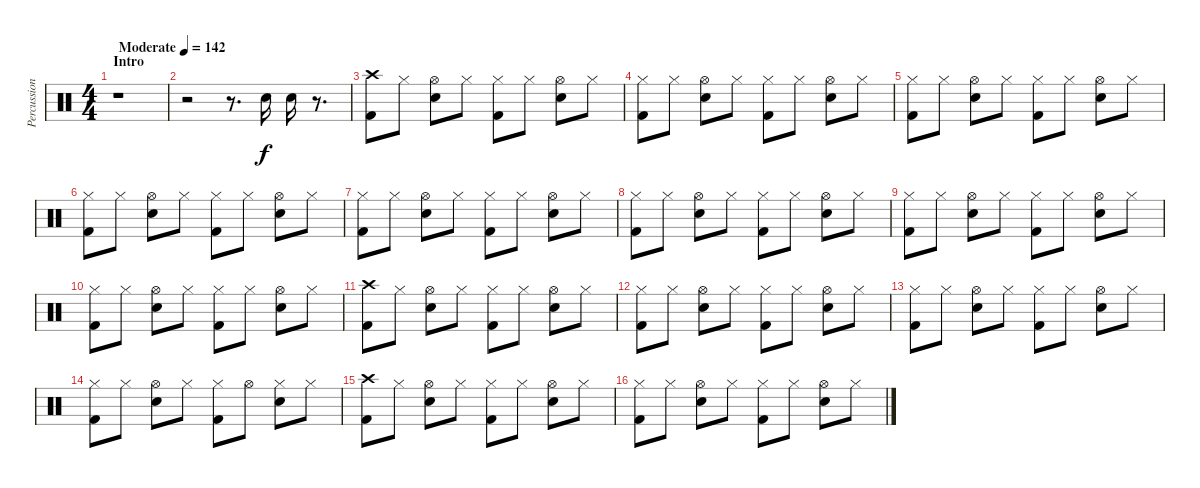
\track ("Percussion" "Percussion") {instrument percussion}
\staff {score}
\articulation defaults
\ts (4 4)
\section ("" "Intro")
\tempo (142 "Moderate")
\clef neutral
\ks c
r.1{dy f} |
r.2 r.8{d} "Snare (hit) 2".16 "Snare (hit) 2".16 r.8{d} |
("Kick (hit) 2" "Crash high (hit)").8 "Hi-Hat (closed)".8 ("Snare (hit) 2" "Hi-Hat (open)").8 "Hi-Hat (closed)".8 ("Kick (hit) 2" "Hi-Hat (closed)").8 "Hi-Hat (closed)".8 ("Snare (hit) 2" "Hi-Hat (open)").8 "Hi-Hat (closed)".8 |
("Kick (hit) 2" "Hi-Hat (closed)").8 "Hi-Hat (closed)".8 ("Snare (hit) 2" "Hi-Hat (open)").8 "Hi-Hat (closed)".8 ("Kick (hit) 2" "Hi-Hat (closed)").8 "Hi-Hat (closed)".8 ("Snare (hit) 2" "Hi-Hat (open)").8 "Hi-Hat (closed)".8 |
("Kick (hit) 2" "Hi-Hat (closed)").8 "Hi-Hat (closed)".8 ("Snare (hit) 2" "Hi-Hat (open)").8 "Hi-Hat (closed)".8 ("Kick (hit) 2" "Hi-Hat (closed)").8 "Hi-Hat (closed)".8 ("Snare (hit) 2" "Hi-Hat (open)").8 "Hi-Hat (closed)".8 |
("Kick (hit) 2" "Hi-Hat (closed)").8 "Hi-Hat (closed)".8 ("Snare (hit) 2" "Hi-Hat (open)").8 "Hi-Hat (closed)".8 ("Kick (hit) 2" "Hi-Hat (closed)").8 "Hi-Hat (closed)".8 ("Snare (hit) 2" "Hi-Hat (open)").8 "Hi-Hat (closed)".8 |
("Kick (hit) 2" "Hi-Hat (closed)").8 "Hi-Hat (closed)".8 ("Snare (hit) 2" "Hi-Hat (open)").8 "Hi-Hat (closed)".8 ("Kick (hit) 2" "Hi-Hat (closed)").8 "Hi-Hat (closed)".8 ("Snare (hit) 2" "Hi-Hat (open)").8 "Hi-Hat (closed)".8 |
("Kick (hit) 2" "Hi-Hat (closed)").8 "Hi-Hat (closed)".8 ("Snare (hit) 2" "Hi-Hat (open)").8 "Hi-Hat (closed)".8 ("Kick (hit) 2" "Hi-Hat (closed)").8 "Hi-Hat (closed)".8 ("Snare (hit) 2" "Hi-Hat (open)").8 "Hi-Hat (closed)".8 |
("Kick (hit) 2" "Hi-Hat (closed)").8 "Hi-Hat (closed)".8 ("Snare (hit) 2" "Hi-Hat (open)").8 "Hi-Hat (closed)".8 ("Kick (hit) 2" "Hi-Hat (closed)").8 "Hi-Hat (closed)".8 ("Snare (hit) 2" "Hi-Hat (open)").8 "Hi-Hat (closed)".8 |
("Kick (hit) 2" "Hi-Hat (closed)").8 "Hi-Hat (closed)".8 ("Snare (hit) 2" "Hi-Hat (open)").8 "Hi-Hat (closed)".8 ("Kick (hit) 2" "Hi-Hat (closed)").8 "Hi-Hat (closed)".8 ("Snare (hit) 2" "Hi-Hat (open)").8 "Hi-Hat (closed)".8 |
("Kick (hit) 2" "Crash high (hit)").8 "Hi-Hat (closed)".8 ("Snare (hit) 2" "Hi-Hat (open)").8 "Hi-Hat (closed)".8 ("Kick (hit) 2" "Hi-Hat (closed)").8 "Hi-Hat (closed)".8 ("Snare (hit) 2" "Hi-Hat (open)").8 "Hi-Hat (closed)".8 |
("Kick (hit) 2" "Hi-Hat (closed)").8 "Hi-Hat (closed)".8 ("Snare (hit) 2" "Hi-Hat (open)").8 "Hi-Hat (closed)".8 ("Kick (hit) 2" "Hi-Hat (closed)").8 "Hi-Hat (closed)".8 ("Snare (hit) 2" "Hi-Hat (open)").8 "Hi-Hat (closed)".8 |
("Kick (hit) 2" "Hi-Hat (closed)").8 "Hi-Hat (closed)".8 ("Snare (hit) 2" "Hi-Hat (open)").8 "Hi-Hat (closed)".8 ("Kick (hit) 2" "Hi-Hat (closed)").8 "Hi-Hat (closed)".8 ("Snare (hit) 2" "Hi-Hat (open)").8 "Hi-Hat (closed)".8 |
("Kick (hit) 2" "Hi-Hat (closed)").8 "Hi-Hat (closed)".8 ("Snare (hit) 2" "Hi-Hat (open)").8 "Hi-Hat (closed)".8 ("Kick (hit) 2" "Hi-Hat (closed)").8 "Hi-Hat (open)".8 ("Snare (hit) 2" "Hi-Hat (closed)").8 "Hi-Hat (closed)".8 |
("Kick (hit) 2" "Crash high (hit)").8 "Hi-Hat (closed)".8 ("Snare (hit) 2" "Hi-Hat (open)").8 "Hi-Hat (closed)".8 ("Kick (hit) 2" "Hi-Hat (closed)").8 "Hi-Hat (closed)".8 ("Snare (hit) 2" "Hi-Hat (open)").8 "Hi-Hat (closed)".8 |
("Kick (hit) 2" "Hi-Hat (closed)").8 "Hi-Hat (closed)".8 ("Snare (hit) 2" "Hi-Hat (open)").8 "Hi-Hat (closed)".8 ("Kick (hit) 2" "Hi-Hat (closed)").8 "Hi-Hat (closed)".8 ("Snare (hit) 2" "Hi-Hat (open)").8 "Hi-Hat (closed)".8
